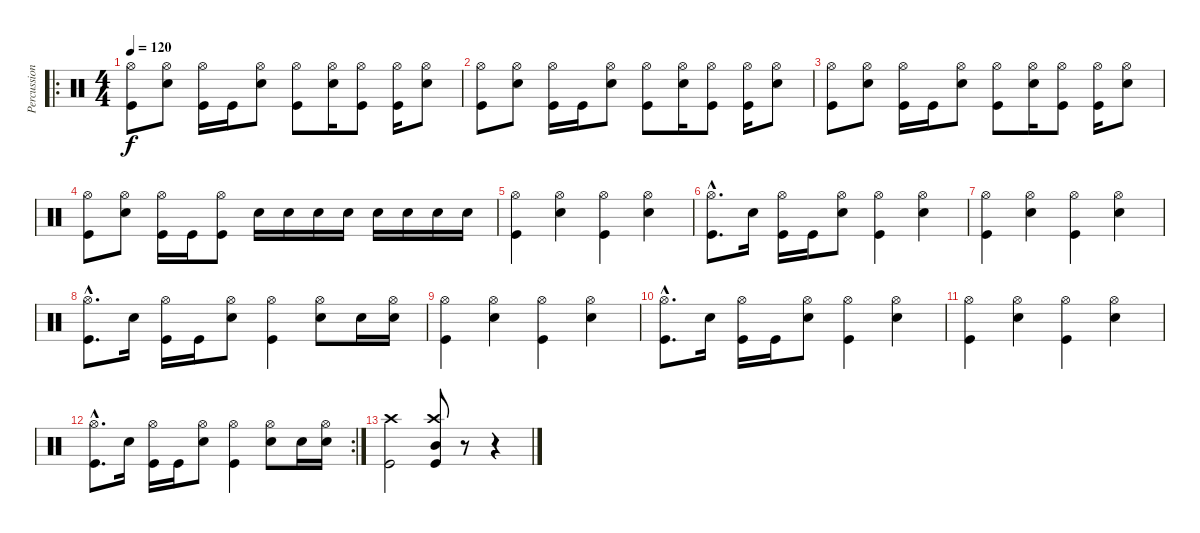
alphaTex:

\track ("Percussion" "Percussion") {instrument percussion}
\staff {score}
\articulation defaults
\ro
\ts (4 4)
\tempo 120
\clef neutral
\ks c
("Hi-Hat (open)" "Kick (hit)").8{dy f} ("Hi-Hat (open)" "Snare (hit) 2").8 ("Hi-Hat (open)" "Kick (hit)").16 "Kick (hit)".16 ("Hi-Hat (open)" "Snare (hit) 2").8 ("Hi-Hat (open)" "Kick (hit)").8 ("Hi-Hat (open)" "Snare (hit) 2").16 ("Hi-Hat (open)" "Kick (hit)").8 ("Hi-Hat (open)" "Kick (hit)").16 ("Hi-Hat (open)" "Snare (hit) 2").8 |
("Hi-Hat (open)" "Kick (hit)").8 ("Hi-Hat (open)" "Snare (hit) 2").8 ("Hi-Hat (open)" "Kick (hit)").16 "Kick (hit)".16 ("Hi-Hat (open)" "Snare (hit) 2").8 ("Hi-Hat (open)" "Kick (hit)").8 ("Hi-Hat (open)" "Snare (hit) 2").16 ("Hi-Hat (open)" "Kick (hit)").8 ("Hi-Hat (open)" "Kick (hit)").16 ("Hi-Hat (open)" "Snare (hit) 2").8 |
("Hi-Hat (open)" "Kick (hit)").8 ("Hi-Hat (open)" "Snare (hit) 2").8 ("Hi-Hat (open)" "Kick (hit)").16 "Kick (hit)".16 ("Hi-Hat (open)" "Snare (hit) 2").8 ("Hi-Hat (open)" "Kick (hit)").8 ("Hi-Hat (open)" "Snare (hit) 2").16 ("Hi-Hat (open)" "Kick (hit)").8 ("Hi-Hat (open)" "Kick (hit)").16 ("Hi-Hat (open)" "Snare (hit) 2").8 |
("Hi-Hat (open)" "Kick (hit)").8 ("Hi-Hat (open)" "Snare (hit) 2").8 ("Hi-Hat (open)" "Kick (hit)").16 "Kick (hit)".16 ("Hi-Hat (open)" "Kick (hit)").8 "Snare (hit) 2".16 "Snare (hit) 2".16 "Snare (hit) 2".16 "Snare (hit) 2".16 "Snare (hit) 2".16 "Snare (hit) 2".16 "Snare (hit) 2".16 "Snare (hit) 2".16 |
("Hi-Hat (open)" "Kick (hit)").4 ("Hi-Hat (open)" "Snare (hit) 2").4 ("Hi-Hat (open)" "Kick (hit)").4 ("Hi-Hat (open)" "Snare (hit) 2").4 |
("Hi-Hat (open)"{hac} "Kick (hit)"{hac}).8{d} "Snare (hit) 2".16 ("Hi-Hat (open)" "Kick (hit)").16 "Kick (hit)".16 ("Hi-Hat (open)" "Snare (hit) 2").8 ("Hi-Hat (open)" "Kick (hit)").4 ("Hi-Hat (open)" "Snare (hit) 2").4 |
("Hi-Hat (open)" "Kick (hit)").4 ("Hi-Hat (open)" "Snare (hit) 2").4 ("Hi-Hat (open)" "Kick (hit)").4 ("Hi-Hat (open)" "Snare (hit) 2").4 |
("Hi-Hat (open)"{hac} "Kick (hit)"{hac}).8{d} "Snare (hit) 2".16 ("Hi-Hat (open)" "Kick (hit)").16 "Kick (hit)".16 ("Hi-Hat (open)" "Snare (hit) 2").8 ("Hi-Hat (open)" "Kick (hit)").4 ("Hi-Hat (open)" "Snare (hit) 2").8 "Snare (hit) 2".16 ("Hi-Hat (open)" "Snare (hit) 2").16 |
("Hi-Hat (open)" "Kick (hit)").4 ("Hi-Hat (open)" "Snare (hit) 2").4 ("Hi-Hat (open)" "Kick (hit)").4 ("Hi-Hat (open)" "Snare (hit) 2").4 |
("Hi-Hat (open)"{hac} "Kick (hit)"{hac}).8{d} "Snare (hit) 2".16 ("Hi-Hat (open)" "Kick (hit)").16 "Kick (hit)".16 ("Hi-Hat (open)" "Snare (hit) 2").8 ("Hi-Hat (open)" "Kick (hit)").4 ("Hi-Hat (open)" "Snare (hit) 2").4 |
("Hi-Hat (open)" "Kick (hit)").4 ("Hi-Hat (open)" "Snare (hit) 2").4 ("Hi-Hat (open)" "Kick (hit)").4 ("Hi-Hat (open)" "Snare (hit) 2").4 |
\rc 2
("Hi-Hat (open)"{hac} "Kick (hit)"{hac}).8{d} "Snare (hit) 2".16 ("Hi-Hat (open)" "Kick (hit)").16 "Kick (hit)".16 ("Hi-Hat (open)" "Snare (hit) 2").8 ("Hi-Hat (open)" "Kick (hit)").4 ("Hi-Hat (open)" "Snare (hit) 2").8 "Snare (hit) 2".16 ("Hi-Hat (open)" "Snare (hit) 2").16 |
("Kick (hit)" "Crash high (hit)").2 ("Mid Tom (hit)" "Kick (hit)" "Crash high (hit)").8 r.8 r.4
